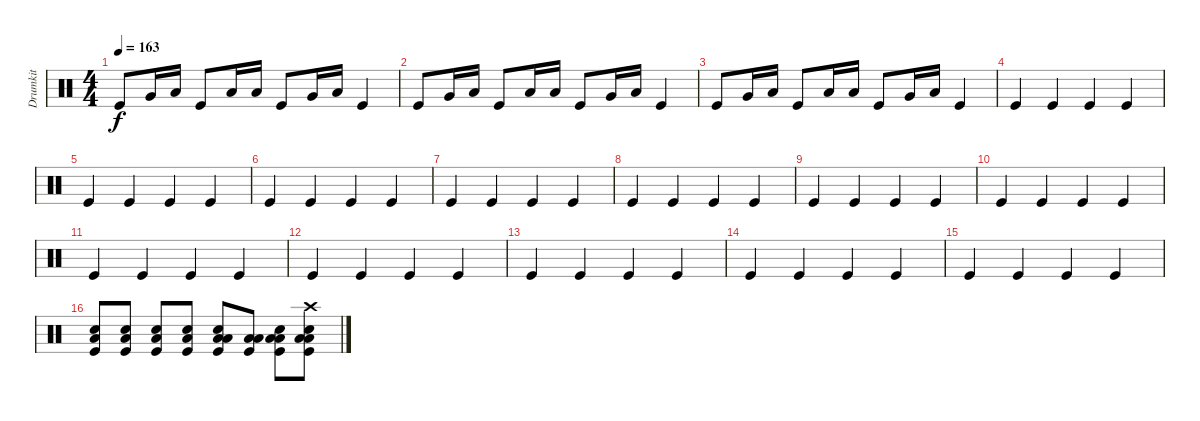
\track ("Drumkit" "Drumkit") {instrument percussion}
\staff {score}
\articulation defaults
\ts (4 4)
\tempo 163
\clef neutral
\ks c "Kick (hit)".8{dy f} "Very Low Tom (hit)".16 "Low Floor Tom (hit)".16 "Kick (hit)".8 "Low Tom (hit)".16 "Low Floor Tom (hit)".16 "Kick (hit)".8 "Very Low Tom (hit)".16 "Low Floor Tom (hit)".16 "Kick (hit)".4
|
"Kick (hit)".8 "Very Low Tom (hit)".16 "Low Floor Tom (hit)".16 "Kick (hit)".8 "Low Tom (hit)".16 "Low Floor Tom (hit)".16 "Kick (hit)".8 "Very Low Tom (hit)".16 "Low Floor Tom (hit)".16 "Kick (hit)".4 |
"Kick (hit)".8 "Very Low Tom (hit)".16 "Low Floor Tom (hit)".16 "Kick (hit)".8 "Low Tom (hit)".16 "Low Floor Tom (hit)".16 "Kick (hit)".8 "Very Low Tom (hit)".16 "Low Floor Tom (hit)".16 "Kick (hit)".4 |
"Kick (hit)".4 "Kick (hit)".4 "Kick (hit)".4 "Kick (hit)".4 |
"Kick (hit)".4 "Kick (hit)".4 "Kick (hit)".4 "Kick (hit)".4 |
"Kick (hit)".4 "Kick (hit)".4 "Kick (hit)".4 "Kick (hit)".4 |
"Kick (hit)".4 "Kick (hit)".4 "Kick (hit)".4 "Kick (hit)".4 |
"Kick (hit)".4 "Kick (hit)".4 "Kick (hit)".4 "Kick (hit)".4 |
"Kick (hit)".4 "Kick (hit)".4 "Kick (hit)".4 "Kick (hit)".4 |
"Kick (hit)".4 "Kick (hit)".4 "Kick (hit)".4 "Kick (hit)".4 |
"Kick (hit)".4 "Kick (hit)".4 "Kick (hit)".4 "Kick (hit)".4 |
"Kick (hit)".4 "Kick (hit)".4 "Kick (hit)".4 "Kick (hit)".4 |
"Kick (hit)".4 "Kick (hit)".4 "Kick (hit)".4 "Kick (hit)".4 |
"Kick (hit)".4 "Kick (hit)".4 "Kick (hit)".4 "Kick (hit)".4 |
"Kick (hit)".4 "Kick (hit)".4 "Kick (hit)".4 "Kick (hit)".4 |
("Snare (hit) 2" "Low Floor Tom (hit)" "Kick (hit)").8 ("Snare (hit) 2" "Low Floor Tom (hit)" "Kick (hit)").8 ("Snare (hit) 2" "Low Floor Tom (hit)" "Kick (hit)").8 ("Snare (hit) 2" "Low Floor Tom (hit)" "Kick (hit)").8 ("Snare (hit) 2" "Low Tom (hit)" "Low Floor Tom (hit)" "Kick (hit)").8 ("Low Tom (hit)" "Low Floor Tom (hit)" "Kick (hit)").8 ("Snare (hit) 2" "Low Tom (hit)" "Low Floor Tom (hit)" "Kick (hit)").8 ("Crash high (hit)" "Snare (hit) 2" "Low Tom (hit)" "Low Floor Tom (hit)" "Kick (hit)").8
